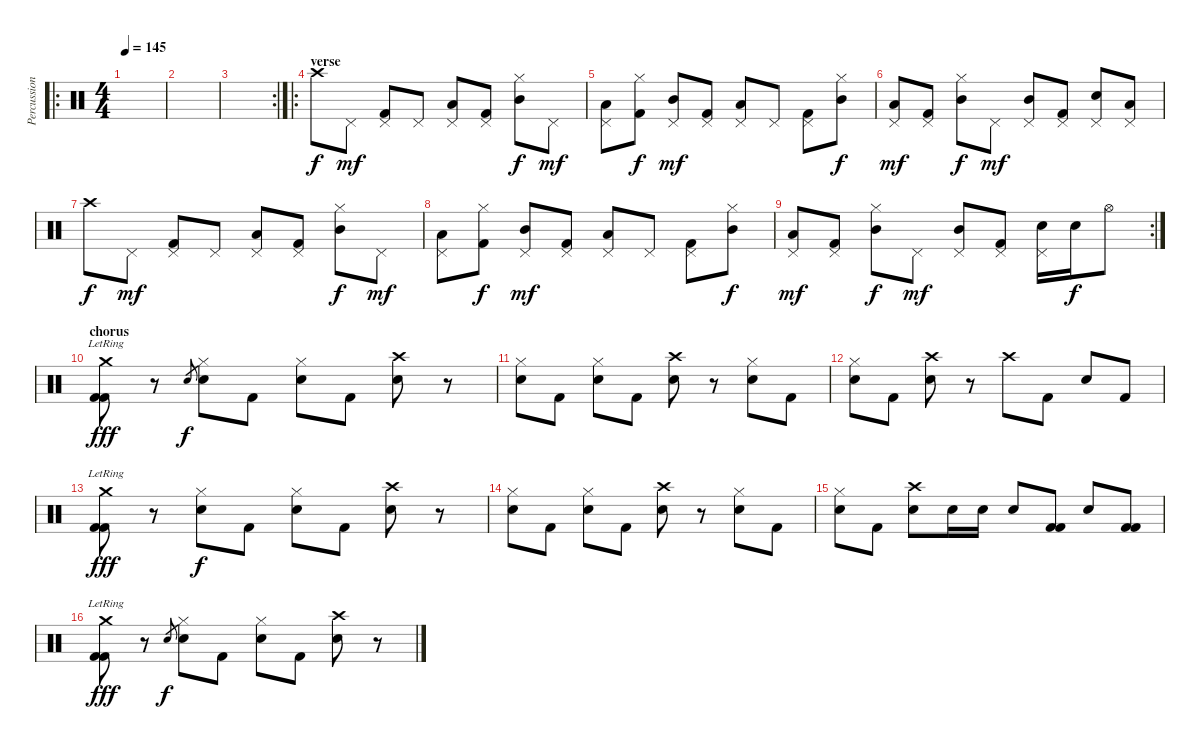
\track ("Percussion" "Percussion") {instrument percussion}
\staff {score}
\articulation defaults
\ro
\ts (4 4)
\tempo 145
\clef neutral
\ks c
|
|
\rc 2
|
\ro
\section ("" "verse")
"Crash high (hit)".8 "Pedal Hi-Hat (hit)".8{dy mf} ("Pedal Hi-Hat (hit)" "Kick (hit) 2").8 "Pedal Hi-Hat (hit)".8 ("Pedal Hi-Hat (hit)" "Low Tom (hit)").8 ("Pedal Hi-Hat (hit)" "Kick (hit) 2").8 ("Hi-Hat (closed)" "Mid Tom (hit)").8{dy f} "Pedal Hi-Hat (hit)".8{dy mf} |
("Pedal Hi-Hat (hit)" "Low Tom (hit)").8 ("Hi-Hat (closed)" "Kick (hit) 2").8{dy f} ("Pedal Hi-Hat (hit)" "Mid Tom (hit)").8{dy mf} ("Pedal Hi-Hat (hit)" "Kick (hit) 2").8 ("Pedal Hi-Hat (hit)" "Low Tom (hit)").8 "Pedal Hi-Hat (hit)".8 ("Pedal Hi-Hat (hit)" "Kick (hit) 2").8 ("Hi-Hat (closed)" "Mid Tom (hit)").8{dy f} |
("Pedal Hi-Hat (hit)" "Low Tom (hit)").8{dy mf} ("Pedal Hi-Hat (hit)" "Kick (hit) 2").8 ("Hi-Hat (closed)" "Mid Tom (hit)").8{dy f} "Pedal Hi-Hat (hit)".8{dy mf} ("Pedal Hi-Hat (hit)" "Mid Tom (hit)").8 ("Pedal Hi-Hat (hit)" "Kick (hit) 2").8 ("Pedal Hi-Hat (hit)" "Snare (hit) 2").8 ("Pedal Hi-Hat (hit)" "Low Tom (hit)").8 |
"Crash high (hit)".8{dy f} "Pedal Hi-Hat (hit)".8{dy mf} ("Pedal Hi-Hat (hit)" "Kick (hit) 2").8 "Pedal Hi-Hat (hit)".8 ("Pedal Hi-Hat (hit)" "Low Tom (hit)").8 ("Pedal Hi-Hat (hit)" "Kick (hit) 2").8 ("Hi-Hat (closed)" "Mid Tom (hit)").8{dy f} "Pedal Hi-Hat (hit)".8{dy mf} |
("Pedal Hi-Hat (hit)" "Low Tom (hit)").8 ("Hi-Hat (closed)" "Kick (hit) 2").8{dy f} ("Pedal Hi-Hat (hit)" "Mid Tom (hit)").8{dy mf} ("Pedal Hi-Hat (hit)" "Kick (hit) 2").8 ("Pedal Hi-Hat (hit)" "Low Tom (hit)").8 "Pedal Hi-Hat (hit)".8 ("Pedal Hi-Hat (hit)" "Kick (hit) 2").8 ("Hi-Hat (closed)" "Mid Tom (hit)").8{dy f} |
\rc 2
("Pedal Hi-Hat (hit)" "Low Tom (hit)").8{dy mf} ("Pedal Hi-Hat (hit)" "Kick (hit) 2").8 ("Hi-Hat (closed)" "Mid Tom (hit)").8{dy f} "Pedal Hi-Hat (hit)".8{dy mf} ("Pedal Hi-Hat (hit)" "Mid Tom (hit)").8 ("Pedal Hi-Hat (hit)" "Kick (hit) 2").8 ("Pedal Hi-Hat (hit)" "Snare (hit) 2").16 "Snare (hit) 2".16{dy f} "Hi-Hat (open)".8 |
\section ("" "chorus")
("Crash medium (hit)"{lr} "Kick (hit) 2" "Kick (hit) 2").8{dy fff} r.8 "Electric Snare (hit)".8{gr dy f} ("Hi-Hat (closed)" "Electric Snare (hit)").8 "Kick (hit) 2".8 ("Hi-Hat (closed)" "Electric Snare (hit)").8 "Kick (hit) 2".8 ("Crash high (hit)" "Snare (hit) 2").8 r.8 |
("Hi-Hat (closed)" "Electric Snare (hit)").8 "Kick (hit) 2".8 ("Hi-Hat (closed)" "Electric Snare (hit)").8 "Kick (hit) 2".8 ("Crash high (hit)" "Snare (hit) 2").8 r.8 ("Hi-Hat (closed)" "Electric Snare (hit)").8 "Kick (hit) 2".8 |
("Hi-Hat (closed)" "Electric Snare (hit)").8 "Kick (hit) 2".8 ("Crash high (hit)" "Snare (hit) 2").8 r.8 "Crash high (hit)".8 "Kick (hit) 2".8 "Snare (hit) 2".8 "Kick (hit) 2".8 |
("Crash medium (hit)"{lr} "Kick (hit) 2" "Kick (hit) 2").8{dy fff} r.8 ("Hi-Hat (closed)" "Electric Snare (hit)").8{dy f} "Kick (hit) 2".8 ("Hi-Hat (closed)" "Electric Snare (hit)").8 "Kick (hit) 2".8 ("Crash high (hit)" "Snare (hit) 2").8 r.8 |
("Hi-Hat (closed)" "Electric Snare (hit)").8 "Kick (hit) 2".8 ("Hi-Hat (closed)" "Electric Snare (hit)").8 "Kick (hit) 2".8 ("Crash high (hit)" "Snare (hit) 2").8 r.8 ("Hi-Hat (closed)" "Electric Snare (hit)").8 "Kick (hit) 2".8 |
("Hi-Hat (closed)" "Electric Snare (hit)").8 "Kick (hit) 2".8 ("Crash high (hit)" "Snare (hit) 2").8 "Snare (hit) 2".16 "Snare (hit) 2".16 "Snare (hit) 2".8 ("Kick (hit) 2" "Kick (hit) 2").8 "Snare (hit) 2".8 ("Kick (hit) 2" "Kick (hit) 2").8 |
("Crash medium (hit)"{lr} "Kick (hit) 2" "Kick (hit) 2").8{dy fff} r.8 "Electric Snare (hit)".8{gr dy f} ("Hi-Hat (closed)" "Electric Snare (hit)").8 "Kick (hit) 2".8 ("Hi-Hat (closed)" "Electric Snare (hit)").8 "Kick (hit) 2".8 ("Crash high (hit)" "Snare (hit) 2").8 r.8
